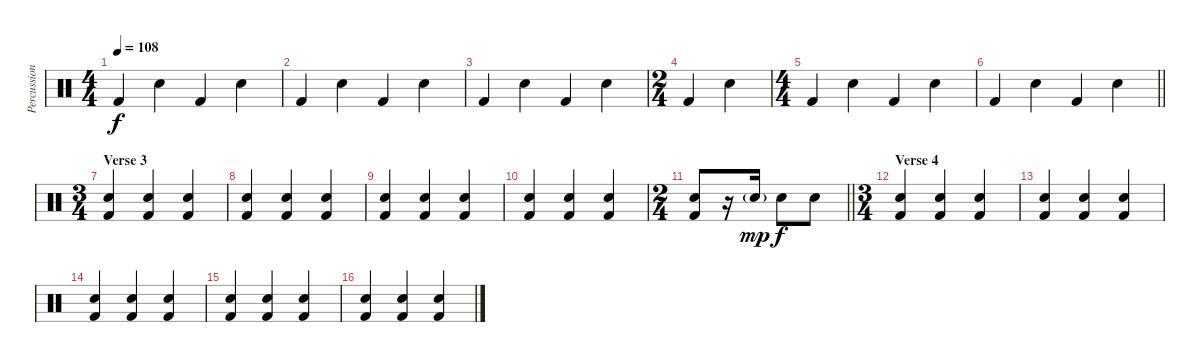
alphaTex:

\track ("Percussion" "Percussion") {instrument percussion}
\staff {score}
\articulation defaults
\ts (4 4)
\tempo 108
\clef neutral
\ks c "Kick (hit) 2".4{dy f} "Snare (hit) 2".4 "Kick (hit) 2".4 "Snare (hit) 2".4
|
"Kick (hit) 2".4 "Snare (hit) 2".4 "Kick (hit) 2".4 "Snare (hit) 2".4 |
"Kick (hit) 2".4 "Snare (hit) 2".4 "Kick (hit) 2".4 "Snare (hit) 2".4 |
\ts (2 4)
"Kick (hit) 2".4 "Snare (hit) 2".4 |
\ts (4 4)
"Kick (hit) 2".4 "Snare (hit) 2".4 "Kick (hit) 2".4 "Snare (hit) 2".4 |
\barLineRight lightlight "Kick (hit) 2".4 "Snare (hit) 2".4 "Kick (hit) 2".4 "Snare (hit) 2".4
|
\ts (3 4)
\section ("" "Verse 3")
("Snare (hit) 2" "Kick (hit) 2").4 ("Snare (hit) 2" "Kick (hit) 2").4 ("Snare (hit) 2" "Kick (hit) 2").4 |
("Snare (hit) 2" "Kick (hit) 2").4 ("Snare (hit) 2" "Kick (hit) 2").4 ("Snare (hit) 2" "Kick (hit) 2").4 |
("Snare (hit) 2" "Kick (hit) 2").4 ("Snare (hit) 2" "Kick (hit) 2").4 ("Snare (hit) 2" "Kick (hit) 2").4 |
("Snare (hit) 2" "Kick (hit) 2").4 ("Snare (hit) 2" "Kick (hit) 2").4 ("Snare (hit) 2" "Kick (hit) 2").4 |
\ts (2 4)
\barLineRight lightlight
("Snare (hit) 2" "Kick (hit) 2").8 r.16 "Snare (hit) 2"{g}.16{dy mp} "Snare (hit) 2".8{dy f} "Snare (hit) 2".8 |
\ts (3 4)
\section ("" "Verse 4")
("Snare (hit) 2" "Kick (hit) 2").4 ("Snare (hit) 2" "Kick (hit) 2").4 ("Snare (hit) 2" "Kick (hit) 2").4 |
("Snare (hit) 2" "Kick (hit) 2").4 ("Snare (hit) 2" "Kick (hit) 2").4 ("Snare (hit) 2" "Kick (hit) 2").4 |
("Snare (hit) 2" "Kick (hit) 2").4 ("Snare (hit) 2" "Kick (hit) 2").4 ("Snare (hit) 2" "Kick (hit) 2").4 |
("Snare (hit) 2" "Kick (hit) 2").4 ("Snare (hit) 2" "Kick (hit) 2").4 ("Snare (hit) 2" "Kick (hit) 2").4 |
("Snare (hit) 2" "Kick (hit) 2").4 ("Snare (hit) 2" "Kick (hit) 2").4 ("Snare (hit) 2" "Kick (hit) 2").4
